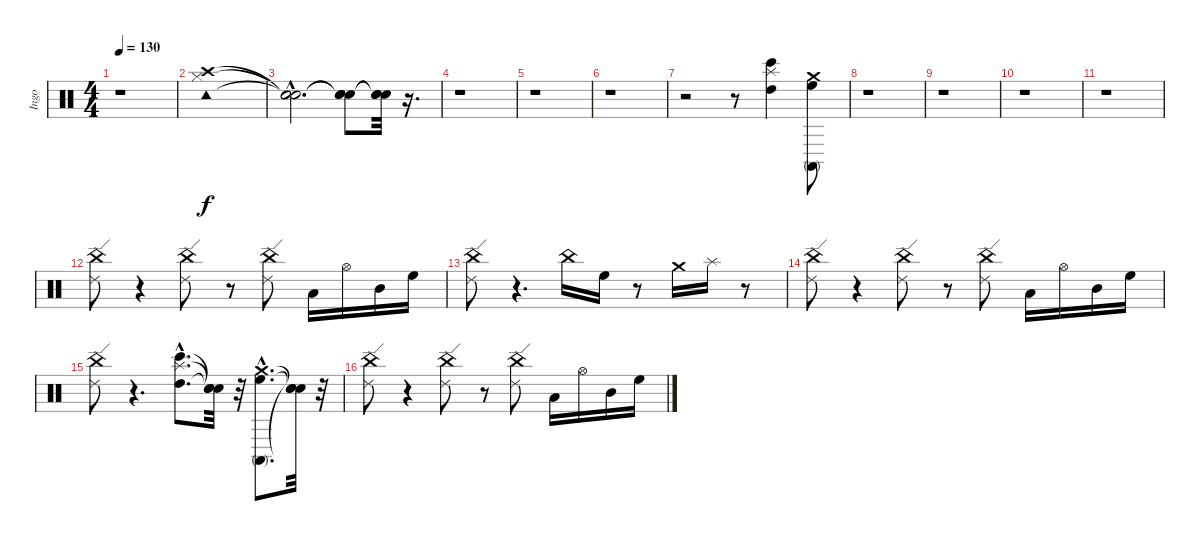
\track ("Ingo" "Ingo") {instrument percussion}
\staff {score}
\articulation defaults
\ts (4 4)
\tempo 130
\clef neutral
\ks c
r.1{dy f} |
("Tambourine (hit)" "Hi-Hat (closed)" "Crash high (hit)").1 |
("Snare (hit)"{hac t} "Snare (hit)"{hac t} "Snare (hit)"{hac t}).2{d} ("Snare (hit)"{t} "Snare (hit)"{t} "Snare (hit)"{t}).8 ("Snare (hit)"{t} "Snare (hit)"{t} "Snare (hit)"{t}).32 r.16{d} |
r.1 |
r.1 |
r.1 |
r.2 r.8 ("Bongo High (hit)" "High Tom (hit)" "Splash (hit)").4 ("High Floor Tom (hit)" "Conga high (mute)" "Crash medium (hit)").8 |
r.1 |
r.1 |
r.1 |
r.1 |
("Ride (edge) 2" "China (hit)").8 r.4 ("Ride (edge) 2" "China (hit)").8 r.8 ("Ride (edge) 2" "China (hit)").8 "Low Tom (hit)".16 "Hi-Hat (open)".16 "Mid Tom (hit)".16 "High Floor Tom (hit)".16 |
("Ride (edge) 2" "China (hit)").8 r.4{d} "China (hit)".16 "High Floor Tom (hit)".16 r.8 "Crash medium (hit)".16 "Splash (hit)".16 r.8 |
("Ride (edge) 2" "China (hit)").8 r.4 ("Ride (edge) 2" "China (hit)").8 r.8 ("Ride (edge) 2" "China (hit)").8 "Low Tom (hit)".16 "Hi-Hat (open)".16 "Mid Tom (hit)".16 "High Floor Tom (hit)".16 |
("Ride (edge) 2" "China (hit)").8 r.4{d} ("Bongo High (hit)"{hac} "High Tom (hit)"{hac} "Splash (hit)"{hac}).8{d} ("Snare (hit)"{t} "Snare (hit)"{t} "Snare (hit)"{t}).32 r.32 ("High Floor Tom (hit)"{hac} "Conga high (mute)"{hac} "Crash medium (hit)"{hac}).8{d} ("Snare (hit)"{t} "Snare (hit)"{t} "Snare (hit)"{t}).32 r.32 |
("Ride (edge) 2" "China (hit)").8 r.4 ("Ride (edge) 2" "China (hit)").8 r.8 ("Ride (edge) 2" "China (hit)").8 "Low Tom (hit)".16 "Hi-Hat (open)".16 "Mid Tom (hit)".16 "High Floor Tom (hit)".16
